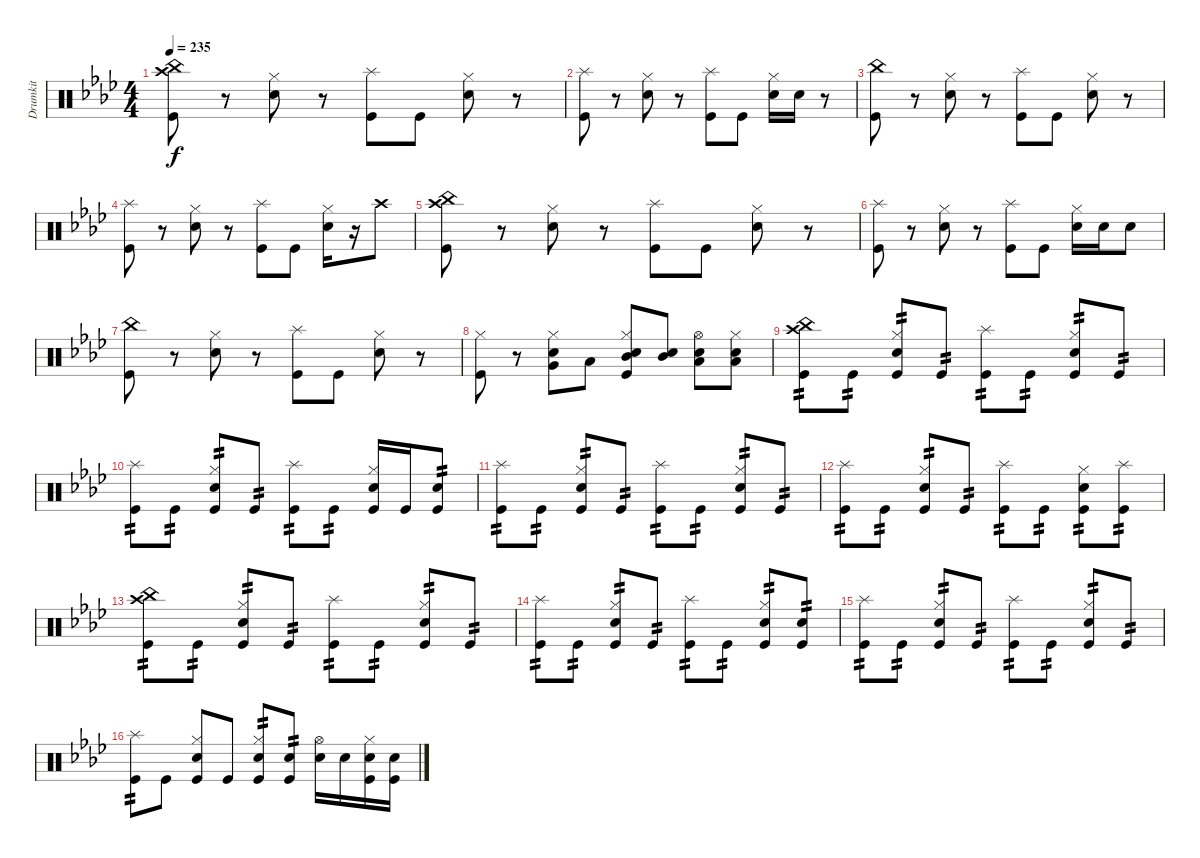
\track ("Drumkit" "Drumkit") {instrument percussion}
\staff {score}
\articulation defaults
\ts (4 4)
\tempo 235
\clef neutral
\ks ab
("Crash high (hit)" "China (hit)" "Kick (hit)").8{dy f} r.8 ("Hi-Hat (closed)" "Electric Snare (hit)").8 r.8 ("Splash (hit)" "Kick (hit)").8 "Kick (hit)".8 ("Hi-Hat (closed)" "Electric Snare (hit)").8 r.8 |
("Splash (hit)" "Kick (hit)").8 r.8 ("Hi-Hat (closed)" "Electric Snare (hit)").8 r.8 ("Splash (hit)" "Kick (hit)").8 "Kick (hit)".8 ("Hi-Hat (closed)" "Electric Snare (hit)").16 "Electric Snare (hit)".16 r.8 |
("China (hit)" "Kick (hit)").8 r.8 ("Hi-Hat (closed)" "Electric Snare (hit)").8 r.8 ("Splash (hit)" "Kick (hit)").8 "Kick (hit)".8 ("Hi-Hat (closed)" "Electric Snare (hit)").8 r.8 |
("Splash (hit)" "Kick (hit)").8 r.8 ("Hi-Hat (closed)" "Electric Snare (hit)").8 r.8 ("Splash (hit)" "Kick (hit)").8 "Kick (hit)".8 ("Hi-Hat (closed)" "Electric Snare (hit)").16 r.16 "Crash high (hit)".8 |
("Crash high (hit)" "China (hit)" "Kick (hit)").8 r.8 ("Hi-Hat (closed)" "Electric Snare (hit)").8 r.8 ("Splash (hit)" "Kick (hit)").8 "Kick (hit)".8 ("Hi-Hat (closed)" "Electric Snare (hit)").8 r.8 |
("Splash (hit)" "Kick (hit)").8 r.8 ("Hi-Hat (closed)" "Electric Snare (hit)").8 r.8 ("Splash (hit)" "Kick (hit)").8 "Kick (hit)".8 ("Hi-Hat (closed)" "Electric Snare (hit)").16 "Electric Snare (hit)".16 "Electric Snare (hit)".8 |
("China (hit)" "Kick (hit)").8 r.8 ("Hi-Hat (closed)" "Electric Snare (hit)").8 r.8 ("Splash (hit)" "Kick (hit)").8 "Kick (hit)".8 ("Hi-Hat (closed)" "Electric Snare (hit)").8 r.8 |
("Hi-Hat (closed)" "Kick (hit)").8 r.8 ("Hi-Hat (closed)" "Very Low Tom (hit)" "Electric Snare (hit)").8 "Low Tom (hit)".8 ("Hi-Hat (closed)" "Mid Tom (hit)" "Electric Snare (hit)" "Kick (hit)").8 ("Mid Tom (hit)" "Electric Snare (hit)").8 ("Hi-Hat (open)" "Low Tom (hit)" "Electric Snare (hit)").8 ("Hi-Hat (closed)" "Low Floor Tom (hit)" "Electric Snare (hit)").8 |
("Crash high (hit)" "China (hit)" "Kick (hit)").8{tp 2} "Kick (hit)".8{tp 2} ("Hi-Hat (closed)" "Electric Snare (hit)" "Kick (hit)").8{tp 2} "Kick (hit)".8{tp 2} ("Splash (hit)" "Kick (hit)").8{tp 2} "Kick (hit)".8{tp 2} ("Hi-Hat (closed)" "Electric Snare (hit)" "Kick (hit)").8{tp 2} "Kick (hit)".8{tp 2} |
("Splash (hit)" "Kick (hit)").8{tp 2} "Kick (hit)".8{tp 2} ("Hi-Hat (closed)" "Electric Snare (hit)" "Kick (hit)").8{tp 2} "Kick (hit)".8{tp 2} ("Splash (hit)" "Kick (hit)").8{tp 2} "Kick (hit)".8{tp 2} ("Hi-Hat (closed)" "Electric Snare (hit)" "Kick (hit)").16 "Kick (hit)".16 ("Electric Snare (hit)" "Kick (hit)").8{tp 2} |
("Splash (hit)" "Kick (hit)").8{tp 2} "Kick (hit)".8{tp 2} ("Hi-Hat (closed)" "Electric Snare (hit)" "Kick (hit)").8{tp 2} "Kick (hit)".8{tp 2} ("Splash (hit)" "Kick (hit)").8{tp 2} "Kick (hit)".8{tp 2} ("Hi-Hat (closed)" "Electric Snare (hit)" "Kick (hit)").8{tp 2} "Kick (hit)".8{tp 2} |
("Splash (hit)" "Kick (hit)").8{tp 2} "Kick (hit)".8{tp 2} ("Hi-Hat (closed)" "Electric Snare (hit)" "Kick (hit)").8{tp 2} "Kick (hit)".8{tp 2} ("Splash (hit)" "Kick (hit)").8{tp 2} "Kick (hit)".8{tp 2} ("Hi-Hat (closed)" "Electric Snare (hit)" "Kick (hit)").8{tp 2} ("Splash (hit)" "Kick (hit)").8{tp 2} |
("Crash high (hit)" "China (hit)" "Kick (hit)").8{tp 2} "Kick (hit)".8{tp 2} ("Hi-Hat (closed)" "Electric Snare (hit)" "Kick (hit)").8{tp 2} "Kick (hit)".8{tp 2} ("Splash (hit)" "Kick (hit)").8{tp 2} "Kick (hit)".8{tp 2} ("Hi-Hat (closed)" "Electric Snare (hit)" "Kick (hit)").8{tp 2} "Kick (hit)".8{tp 2} |
("Splash (hit)" "Kick (hit)").8{tp 2} "Kick (hit)".8{tp 2} ("Hi-Hat (closed)" "Electric Snare (hit)" "Kick (hit)").8{tp 2} "Kick (hit)".8{tp 2} ("Splash (hit)" "Kick (hit)").8{tp 2} "Kick (hit)".8{tp 2} ("Hi-Hat (closed)" "Electric Snare (hit)" "Kick (hit)").8{tp 2} ("Electric Snare (hit)" "Kick (hit)").8{tp 2} |
("Splash (hit)" "Kick (hit)").8{tp 2} "Kick (hit)".8{tp 2} ("Hi-Hat (closed)" "Electric Snare (hit)" "Kick (hit)").8{tp 2} "Kick (hit)".8{tp 2} ("Splash (hit)" "Kick (hit)").8{tp 2} "Kick (hit)".8{tp 2} ("Hi-Hat (closed)" "Electric Snare (hit)" "Kick (hit)").8{tp 2} "Kick (hit)".8{tp 2} |
("Splash (hit)" "Kick (hit)").8{tp 2} "Kick (hit)".8 ("Hi-Hat (closed)" "Electric Snare (hit)" "Kick (hit)").8 "Kick (hit)".8 ("Hi-Hat (closed)" "Electric Snare (hit)" "Kick (hit)").8{tp 2} ("Electric Snare (hit)" "Kick (hit)").8{tp 2} ("Hi-Hat (open)" "Electric Snare (hit)").16 "Electric Snare (hit)".16 ("Hi-Hat (closed)" "Electric Snare (hit)" "Kick (hit)").16 ("Electric Snare (hit)" "Kick (hit)").16
